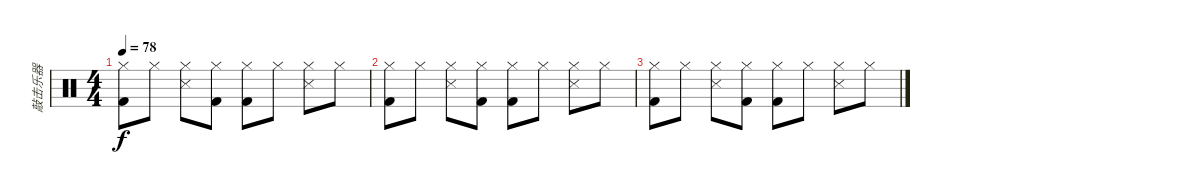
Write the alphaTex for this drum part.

\track ("敲击乐器" "敲击乐器") {instrument percussion}
\staff {score}
\articulation defaults
\ts (4 4)
\tempo 78
\clef neutral
\ks c
("Kick (hit) 2" "Hi-Hat (closed)").8{dy f} "Hi-Hat (closed)".8 ("Snare (side stick) 3" "Hi-Hat (closed)").8 ("Kick (hit) 2" "Hi-Hat (closed)").8 ("Kick (hit) 2" "Hi-Hat (closed)").8 "Hi-Hat (closed)".8 ("Snare (side stick) 3" "Hi-Hat (closed)").8 "Hi-Hat (closed)".8 |
("Kick (hit) 2" "Hi-Hat (closed)").8 "Hi-Hat (closed)".8 ("Snare (side stick) 3" "Hi-Hat (closed)").8 ("Kick (hit) 2" "Hi-Hat (closed)").8 ("Kick (hit) 2" "Hi-Hat (closed)").8 "Hi-Hat (closed)".8 ("Snare (side stick) 3" "Hi-Hat (closed)").8 "Hi-Hat (closed)".8 |
("Kick (hit) 2" "Hi-Hat (closed)").8 "Hi-Hat (closed)".8 ("Snare (side stick) 3" "Hi-Hat (closed)").8 ("Kick (hit) 2" "Hi-Hat (closed)").8 ("Kick (hit) 2" "Hi-Hat (closed)").8 "Hi-Hat (closed)".8 ("Snare (side stick) 3" "Hi-Hat (closed)").8 "Hi-Hat (closed)".8
